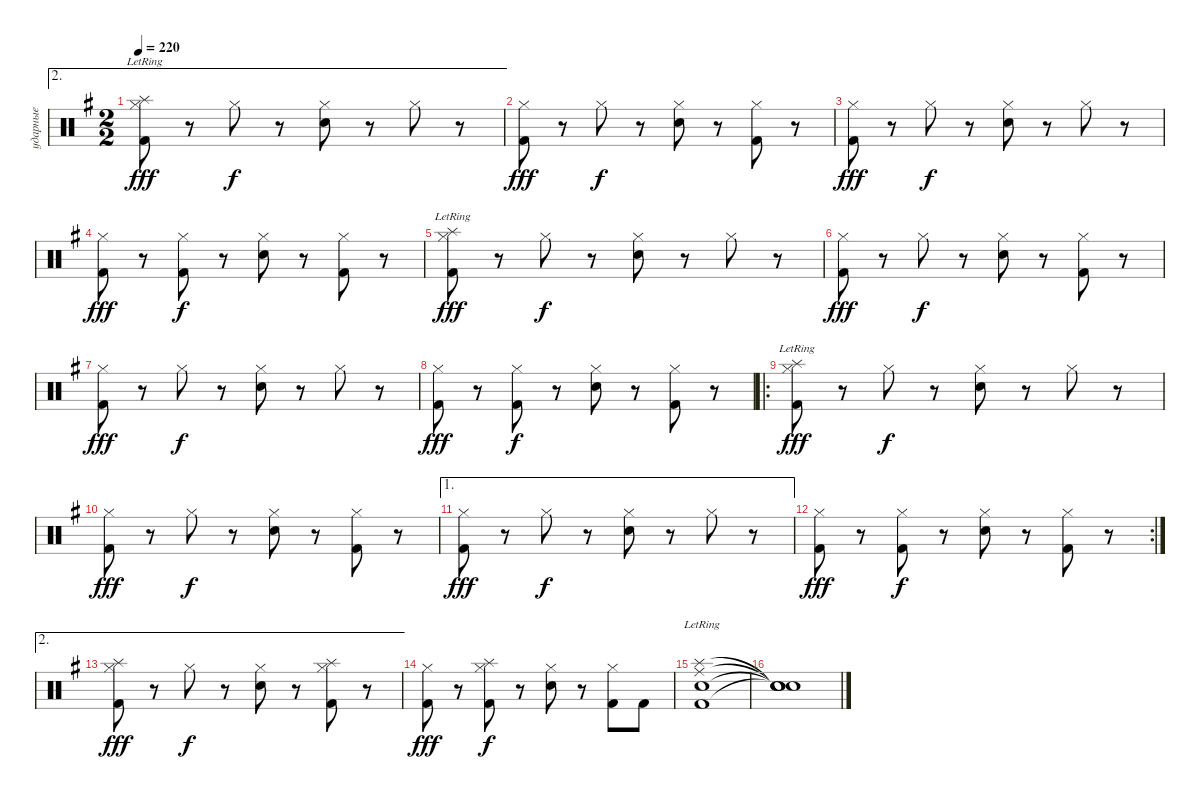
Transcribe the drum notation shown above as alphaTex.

\track ("ударные" "ударные") {instrument percussion}
\staff {score}
\articulation defaults
\ae 2
\ts (2 2)
\tempo 220
\clef neutral
\ks eminor
("Hi-Hat (closed)" "Splash (hit)"{lr} "Kick (hit) 2").8{dy fff} r.8 "Hi-Hat (closed)".8{dy f} r.8 ("Hi-Hat (closed)" "Snare (hit) 2").8 r.8 "Hi-Hat (closed)".8 r.8 |
("Hi-Hat (closed)" "Kick (hit) 2").8{dy fff} r.8 "Hi-Hat (closed)".8{dy f} r.8 ("Hi-Hat (closed)" "Snare (hit) 2").8 r.8 ("Hi-Hat (closed)" "Kick (hit) 2").8 r.8 |
("Hi-Hat (closed)" "Kick (hit) 2").8{dy fff} r.8 "Hi-Hat (closed)".8{dy f} r.8 ("Hi-Hat (closed)" "Snare (hit) 2").8 r.8 "Hi-Hat (closed)".8 r.8 |
("Hi-Hat (closed)" "Kick (hit) 2").8{dy fff} r.8 ("Hi-Hat (closed)" "Kick (hit) 2").8{dy f} r.8 ("Hi-Hat (closed)" "Snare (hit) 2").8 r.8 ("Hi-Hat (closed)" "Kick (hit) 2").8 r.8 |
("Hi-Hat (closed)" "Splash (hit)"{lr} "Kick (hit) 2").8{dy fff} r.8 "Hi-Hat (closed)".8{dy f} r.8 ("Hi-Hat (closed)" "Snare (hit) 2").8 r.8 "Hi-Hat (closed)".8 r.8 |
("Hi-Hat (closed)" "Kick (hit) 2").8{dy fff} r.8 "Hi-Hat (closed)".8{dy f} r.8 ("Hi-Hat (closed)" "Snare (hit) 2").8 r.8 ("Hi-Hat (closed)" "Kick (hit) 2").8 r.8 |
("Hi-Hat (closed)" "Kick (hit) 2").8{dy fff} r.8 "Hi-Hat (closed)".8{dy f} r.8 ("Hi-Hat (closed)" "Snare (hit) 2").8 r.8 "Hi-Hat (closed)".8 r.8 |
("Hi-Hat (closed)" "Kick (hit) 2").8{dy fff} r.8 ("Hi-Hat (closed)" "Kick (hit) 2").8{dy f} r.8 ("Hi-Hat (closed)" "Snare (hit) 2").8 r.8 ("Hi-Hat (closed)" "Kick (hit) 2").8 r.8 |
\ro
("Hi-Hat (closed)" "Splash (hit)"{lr} "Kick (hit) 2").8{dy fff} r.8 "Hi-Hat (closed)".8{dy f} r.8 ("Hi-Hat (closed)" "Snare (hit) 2").8 r.8 "Hi-Hat (closed)".8 r.8 |
("Hi-Hat (closed)" "Kick (hit) 2").8{dy fff} r.8 "Hi-Hat (closed)".8{dy f} r.8 ("Hi-Hat (closed)" "Snare (hit) 2").8 r.8 ("Hi-Hat (closed)" "Kick (hit) 2").8 r.8 |
\ae 1
("Hi-Hat (closed)" "Kick (hit) 2").8{dy fff} r.8 "Hi-Hat (closed)".8{dy f} r.8 ("Hi-Hat (closed)" "Snare (hit) 2").8 r.8 "Hi-Hat (closed)".8 r.8 |
\rc 2
("Hi-Hat (closed)" "Kick (hit) 2").8{dy fff} r.8 ("Hi-Hat (closed)" "Kick (hit) 2").8{dy f} r.8 ("Hi-Hat (closed)" "Snare (hit) 2").8 r.8 ("Hi-Hat (closed)" "Kick (hit) 2").8 r.8 |
\ae 2
("Hi-Hat (closed)" "Splash (hit)" "Kick (hit) 2").8{dy fff} r.8 "Hi-Hat (closed)".8{dy f} r.8 ("Hi-Hat (closed)" "Snare (hit) 2").8 r.8 ("Hi-Hat (closed)" "Splash (hit)" "Kick (hit) 2").8 r.8 |
("Hi-Hat (closed)" "Kick (hit) 2").8{dy fff} r.8 ("Hi-Hat (closed)" "Splash (hit)" "Kick (hit) 2").8{dy f} r.8 ("Hi-Hat (closed)" "Snare (hit) 2").8 r.8 ("Hi-Hat (closed)" "Kick (hit) 2").8 "Kick (hit) 2".8 |
("Ride (middle)"{lr} "Splash (hit)"{lr} "Kick (hit) 2" "Snare (hit) 2").1 |
("Snare (hit)"{t} "Snare (hit)"{t} "Snare (hit)"{t} "Snare (hit)"{t}).1
